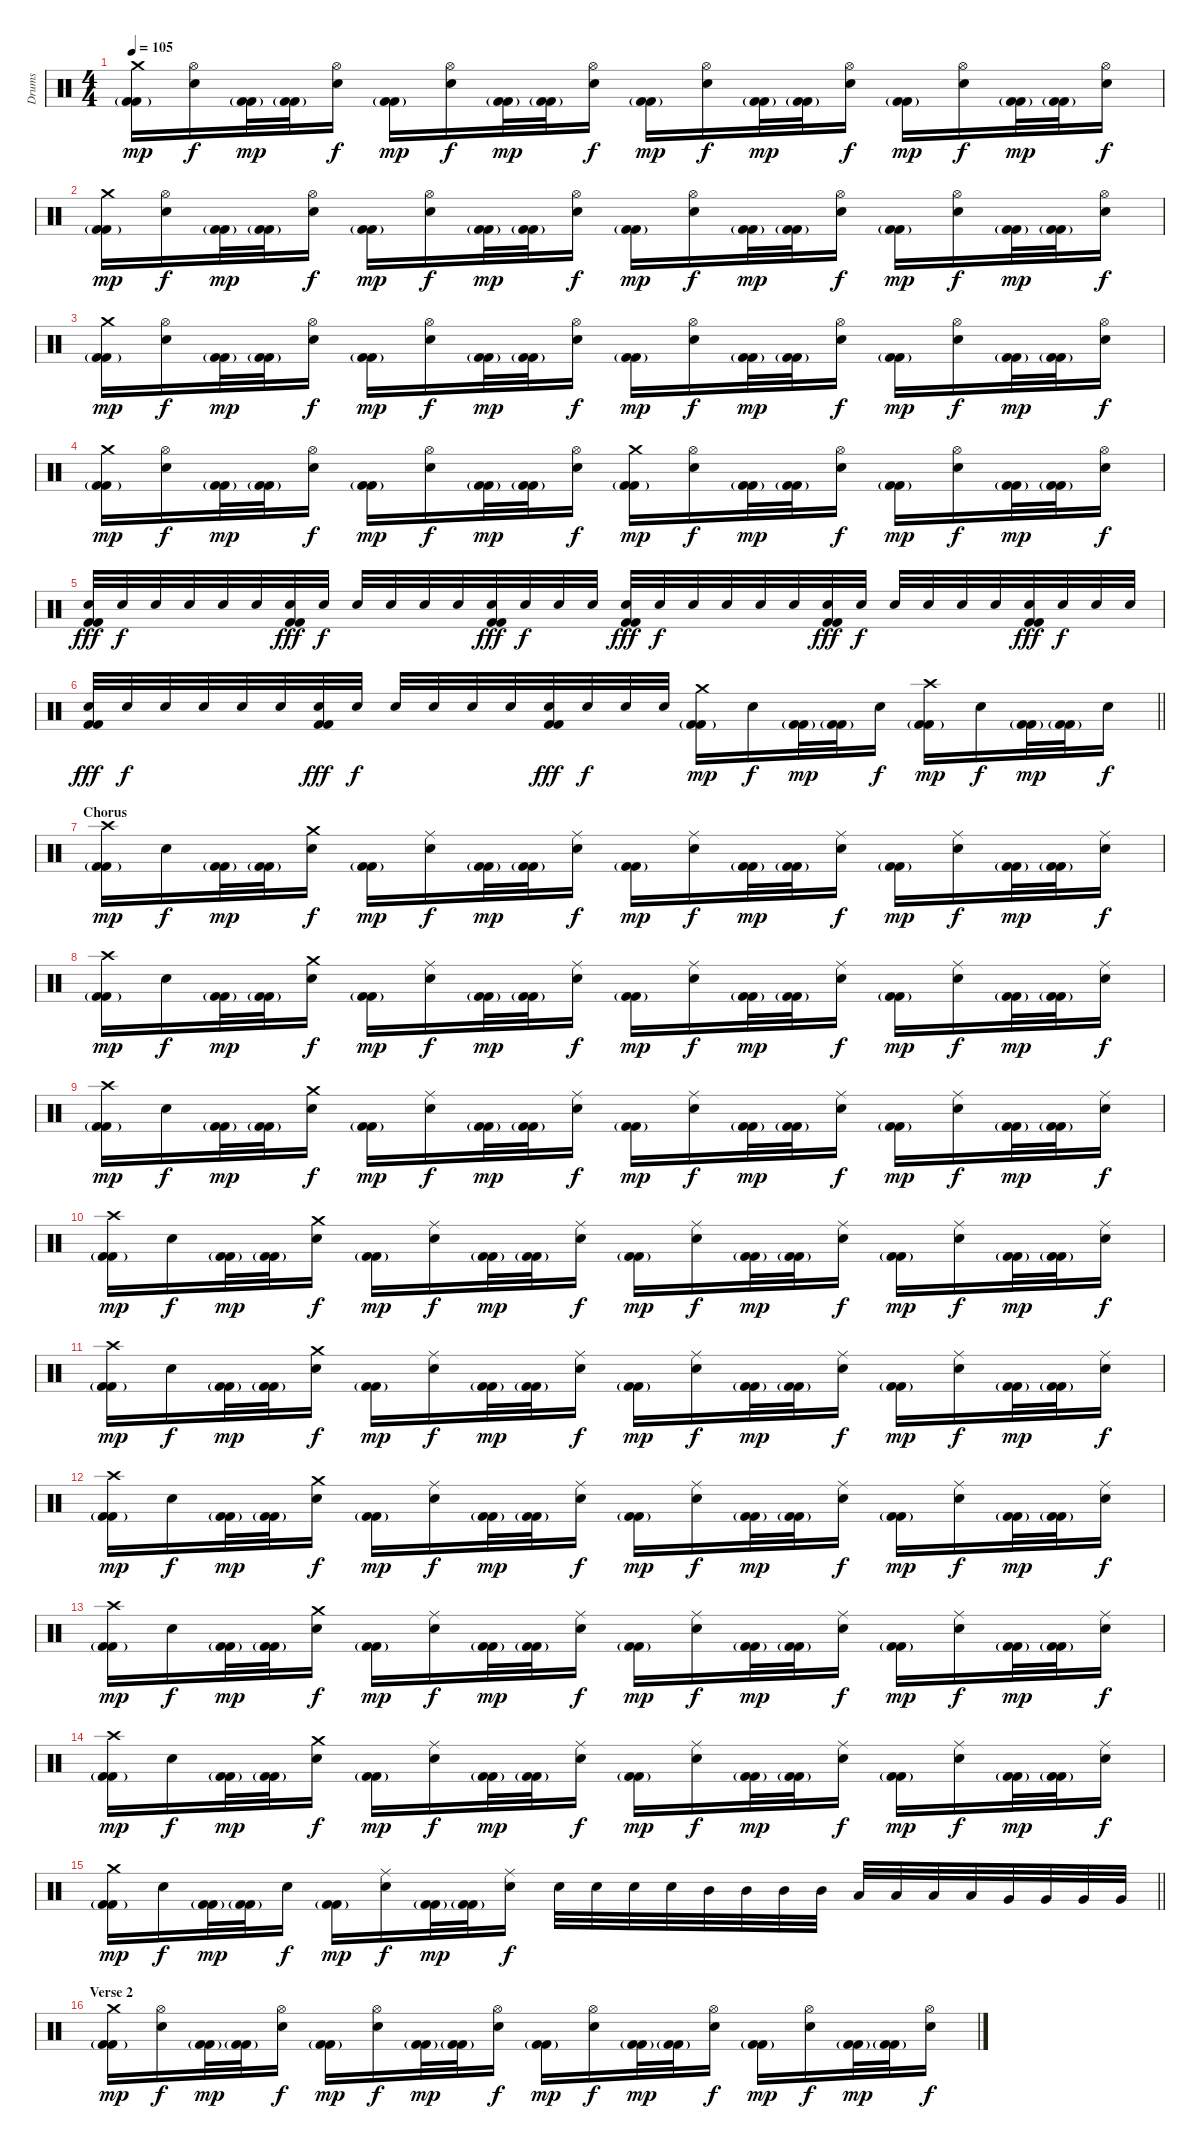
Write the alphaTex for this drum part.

\track ("Drums" "Drums") {instrument percussion}
\staff {score}
\articulation defaults
\ts (4 4)
\tempo 105
\clef neutral
\ks c
("Crash medium (hit)" "Kick (hit) 2"{g} "Kick (hit) 2").16{dy mp} ("Hi-Hat (open)" "Electric Snare (hit)").16{dy f} ("Kick (hit) 2"{g} "Kick (hit) 2").32{dy mp} ("Kick (hit) 2"{g} "Kick (hit) 2").32 ("Hi-Hat (open)" "Electric Snare (hit)").16{dy f} ("Kick (hit) 2"{g} "Kick (hit) 2").16{dy mp} ("Hi-Hat (open)" "Electric Snare (hit)").16{dy f} ("Kick (hit) 2"{g} "Kick (hit) 2").32{dy mp} ("Kick (hit) 2"{g} "Kick (hit) 2").32 ("Hi-Hat (open)" "Electric Snare (hit)").16{dy f} ("Kick (hit) 2"{g} "Kick (hit) 2").16{dy mp} ("Hi-Hat (open)" "Electric Snare (hit)").16{dy f} ("Kick (hit) 2"{g} "Kick (hit) 2").32{dy mp} ("Kick (hit) 2"{g} "Kick (hit) 2").32 ("Hi-Hat (open)" "Electric Snare (hit)").16{dy f} ("Kick (hit) 2"{g} "Kick (hit) 2").16{dy mp} ("Hi-Hat (open)" "Electric Snare (hit)").16{dy f} ("Kick (hit) 2"{g} "Kick (hit) 2").32{dy mp} ("Kick (hit) 2"{g} "Kick (hit) 2").32 ("Hi-Hat (open)" "Electric Snare (hit)").16{dy f} |
("Crash medium (hit)" "Kick (hit) 2"{g} "Kick (hit) 2").16{dy mp} ("Hi-Hat (open)" "Electric Snare (hit)").16{dy f} ("Kick (hit) 2"{g} "Kick (hit) 2").32{dy mp} ("Kick (hit) 2"{g} "Kick (hit) 2").32 ("Hi-Hat (open)" "Electric Snare (hit)").16{dy f} ("Kick (hit) 2"{g} "Kick (hit) 2").16{dy mp} ("Hi-Hat (open)" "Electric Snare (hit)").16{dy f} ("Kick (hit) 2"{g} "Kick (hit) 2").32{dy mp} ("Kick (hit) 2"{g} "Kick (hit) 2").32 ("Hi-Hat (open)" "Electric Snare (hit)").16{dy f} ("Kick (hit) 2"{g} "Kick (hit) 2").16{dy mp} ("Hi-Hat (open)" "Electric Snare (hit)").16{dy f} ("Kick (hit) 2"{g} "Kick (hit) 2").32{dy mp} ("Kick (hit) 2"{g} "Kick (hit) 2").32 ("Hi-Hat (open)" "Electric Snare (hit)").16{dy f} ("Kick (hit) 2"{g} "Kick (hit) 2").16{dy mp} ("Hi-Hat (open)" "Electric Snare (hit)").16{dy f} ("Kick (hit) 2"{g} "Kick (hit) 2").32{dy mp} ("Kick (hit) 2"{g} "Kick (hit) 2").32 ("Hi-Hat (open)" "Electric Snare (hit)").16{dy f} |
("Crash medium (hit)" "Kick (hit) 2"{g} "Kick (hit) 2").16{dy mp} ("Hi-Hat (open)" "Electric Snare (hit)").16{dy f} ("Kick (hit) 2"{g} "Kick (hit) 2").32{dy mp} ("Kick (hit) 2"{g} "Kick (hit) 2").32 ("Hi-Hat (open)" "Electric Snare (hit)").16{dy f} ("Kick (hit) 2"{g} "Kick (hit) 2").16{dy mp} ("Hi-Hat (open)" "Electric Snare (hit)").16{dy f} ("Kick (hit) 2"{g} "Kick (hit) 2").32{dy mp} ("Kick (hit) 2"{g} "Kick (hit) 2").32 ("Hi-Hat (open)" "Electric Snare (hit)").16{dy f} ("Kick (hit) 2"{g} "Kick (hit) 2").16{dy mp} ("Hi-Hat (open)" "Electric Snare (hit)").16{dy f} ("Kick (hit) 2"{g} "Kick (hit) 2").32{dy mp} ("Kick (hit) 2"{g} "Kick (hit) 2").32 ("Hi-Hat (open)" "Electric Snare (hit)").16{dy f} ("Kick (hit) 2"{g} "Kick (hit) 2").16{dy mp} ("Hi-Hat (open)" "Electric Snare (hit)").16{dy f} ("Kick (hit) 2"{g} "Kick (hit) 2").32{dy mp} ("Kick (hit) 2"{g} "Kick (hit) 2").32 ("Hi-Hat (open)" "Electric Snare (hit)").16{dy f} |
("Crash medium (hit)" "Kick (hit) 2"{g} "Kick (hit) 2").16{dy mp} ("Hi-Hat (open)" "Electric Snare (hit)").16{dy f} ("Kick (hit) 2"{g} "Kick (hit) 2").32{dy mp} ("Kick (hit) 2"{g} "Kick (hit) 2").32 ("Hi-Hat (open)" "Electric Snare (hit)").16{dy f} ("Kick (hit) 2"{g} "Kick (hit) 2").16{dy mp} ("Hi-Hat (open)" "Electric Snare (hit)").16{dy f} ("Kick (hit) 2"{g} "Kick (hit) 2").32{dy mp} ("Kick (hit) 2"{g} "Kick (hit) 2").32 ("Hi-Hat (open)" "Electric Snare (hit)").16{dy f} ("Crash medium (hit)" "Kick (hit) 2"{g} "Kick (hit) 2").16{dy mp} ("Hi-Hat (open)" "Electric Snare (hit)").16{dy f} ("Kick (hit) 2"{g} "Kick (hit) 2").32{dy mp} ("Kick (hit) 2"{g} "Kick (hit) 2").32 ("Hi-Hat (open)" "Electric Snare (hit)").16{dy f} ("Kick (hit) 2"{g} "Kick (hit) 2").16{dy mp} ("Hi-Hat (open)" "Electric Snare (hit)").16{dy f} ("Kick (hit) 2"{g} "Kick (hit) 2").32{dy mp} ("Kick (hit) 2"{g} "Kick (hit) 2").32 ("Hi-Hat (open)" "Electric Snare (hit)").16{dy f} |
("Electric Snare (hit)" "Kick (hit) 2" "Kick (hit) 2").32{dy fff} "Electric Snare (hit)".32{dy f} "Electric Snare (hit)".32 "Electric Snare (hit)".32 "Electric Snare (hit)".32 "Electric Snare (hit)".32 ("Electric Snare (hit)" "Kick (hit) 2" "Kick (hit) 2").32{dy fff} "Electric Snare (hit)".32{dy f} "Electric Snare (hit)".32 "Electric Snare (hit)".32 "Electric Snare (hit)".32 "Electric Snare (hit)".32 ("Electric Snare (hit)" "Kick (hit) 2" "Kick (hit) 2").32{dy fff} "Electric Snare (hit)".32{dy f} "Electric Snare (hit)".32 "Electric Snare (hit)".32 ("Electric Snare (hit)" "Kick (hit) 2" "Kick (hit) 2").32{dy fff} "Electric Snare (hit)".32{dy f} "Electric Snare (hit)".32 "Electric Snare (hit)".32 "Electric Snare (hit)".32 "Electric Snare (hit)".32 ("Electric Snare (hit)" "Kick (hit) 2" "Kick (hit) 2").32{dy fff} "Electric Snare (hit)".32{dy f} "Electric Snare (hit)".32 "Electric Snare (hit)".32 "Electric Snare (hit)".32 "Electric Snare (hit)".32 ("Electric Snare (hit)" "Kick (hit) 2" "Kick (hit) 2").32{dy fff} "Electric Snare (hit)".32{dy f} "Electric Snare (hit)".32 "Electric Snare (hit)".32 |
\barLineRight lightlight
("Electric Snare (hit)" "Kick (hit) 2" "Kick (hit) 2").32{dy fff} "Electric Snare (hit)".32{dy f} "Electric Snare (hit)".32 "Electric Snare (hit)".32 "Electric Snare (hit)".32 "Electric Snare (hit)".32 ("Electric Snare (hit)" "Kick (hit) 2" "Kick (hit) 2").32{dy fff} "Electric Snare (hit)".32{dy f} "Electric Snare (hit)".32 "Electric Snare (hit)".32 "Electric Snare (hit)".32 "Electric Snare (hit)".32 ("Electric Snare (hit)" "Kick (hit) 2" "Kick (hit) 2").32{dy fff} "Electric Snare (hit)".32{dy f} "Electric Snare (hit)".32 "Electric Snare (hit)".32 ("Crash medium (hit)" "Kick (hit) 2"{g} "Kick (hit) 2").16{dy mp} "Electric Snare (hit)".16{dy f} ("Kick (hit) 2"{g} "Kick (hit) 2").32{dy mp} ("Kick (hit) 2"{g} "Kick (hit) 2").32 "Electric Snare (hit)".16{dy f} ("Crash high (hit)" "Kick (hit) 2"{g} "Kick (hit) 2").16{dy mp} "Electric Snare (hit)".16{dy f} ("Kick (hit) 2"{g} "Kick (hit) 2").32{dy mp} ("Kick (hit) 2"{g} "Kick (hit) 2").32 "Electric Snare (hit)".16{dy f} |
\section ("" "Chorus")
("Crash high (hit)" "Kick (hit) 2"{g} "Kick (hit) 2").16{dy mp} "Electric Snare (hit)".16{dy f} ("Kick (hit) 2"{g} "Kick (hit) 2").32{dy mp} ("Kick (hit) 2"{g} "Kick (hit) 2").32 ("Crash medium (hit)" "Electric Snare (hit)").16{dy f} ("Kick (hit) 2"{g} "Kick (hit) 2").16{dy mp} ("Ride (middle)" "Electric Snare (hit)").16{dy f} ("Kick (hit) 2"{g} "Kick (hit) 2").32{dy mp} ("Kick (hit) 2"{g} "Kick (hit) 2").32 ("Ride (middle)" "Electric Snare (hit)").16{dy f} ("Kick (hit) 2"{g} "Kick (hit) 2").16{dy mp} ("Ride (middle)" "Electric Snare (hit)").16{dy f} ("Kick (hit) 2"{g} "Kick (hit) 2").32{dy mp} ("Kick (hit) 2"{g} "Kick (hit) 2").32 ("Ride (middle)" "Electric Snare (hit)").16{dy f} ("Kick (hit) 2"{g} "Kick (hit) 2").16{dy mp} ("Ride (middle)" "Electric Snare (hit)").16{dy f} ("Kick (hit) 2"{g} "Kick (hit) 2").32{dy mp} ("Kick (hit) 2"{g} "Kick (hit) 2").32 ("Ride (middle)" "Electric Snare (hit)").16{dy f} |
("Crash high (hit)" "Kick (hit) 2"{g} "Kick (hit) 2").16{dy mp} "Electric Snare (hit)".16{dy f} ("Kick (hit) 2"{g} "Kick (hit) 2").32{dy mp} ("Kick (hit) 2"{g} "Kick (hit) 2").32 ("Crash medium (hit)" "Electric Snare (hit)").16{dy f} ("Kick (hit) 2"{g} "Kick (hit) 2").16{dy mp} ("Ride (middle)" "Electric Snare (hit)").16{dy f} ("Kick (hit) 2"{g} "Kick (hit) 2").32{dy mp} ("Kick (hit) 2"{g} "Kick (hit) 2").32 ("Ride (middle)" "Electric Snare (hit)").16{dy f} ("Kick (hit) 2"{g} "Kick (hit) 2").16{dy mp} ("Ride (middle)" "Electric Snare (hit)").16{dy f} ("Kick (hit) 2"{g} "Kick (hit) 2").32{dy mp} ("Kick (hit) 2"{g} "Kick (hit) 2").32 ("Ride (middle)" "Electric Snare (hit)").16{dy f} ("Kick (hit) 2"{g} "Kick (hit) 2").16{dy mp} ("Ride (middle)" "Electric Snare (hit)").16{dy f} ("Kick (hit) 2"{g} "Kick (hit) 2").32{dy mp} ("Kick (hit) 2"{g} "Kick (hit) 2").32 ("Ride (middle)" "Electric Snare (hit)").16{dy f} |
("Crash high (hit)" "Kick (hit) 2"{g} "Kick (hit) 2").16{dy mp} "Electric Snare (hit)".16{dy f} ("Kick (hit) 2"{g} "Kick (hit) 2").32{dy mp} ("Kick (hit) 2"{g} "Kick (hit) 2").32 ("Crash medium (hit)" "Electric Snare (hit)").16{dy f} ("Kick (hit) 2"{g} "Kick (hit) 2").16{dy mp} ("Ride (middle)" "Electric Snare (hit)").16{dy f} ("Kick (hit) 2"{g} "Kick (hit) 2").32{dy mp} ("Kick (hit) 2"{g} "Kick (hit) 2").32 ("Ride (middle)" "Electric Snare (hit)").16{dy f} ("Kick (hit) 2"{g} "Kick (hit) 2").16{dy mp} ("Ride (middle)" "Electric Snare (hit)").16{dy f} ("Kick (hit) 2"{g} "Kick (hit) 2").32{dy mp} ("Kick (hit) 2"{g} "Kick (hit) 2").32 ("Ride (middle)" "Electric Snare (hit)").16{dy f} ("Kick (hit) 2"{g} "Kick (hit) 2").16{dy mp} ("Ride (middle)" "Electric Snare (hit)").16{dy f} ("Kick (hit) 2"{g} "Kick (hit) 2").32{dy mp} ("Kick (hit) 2"{g} "Kick (hit) 2").32 ("Ride (middle)" "Electric Snare (hit)").16{dy f} |
("Crash high (hit)" "Kick (hit) 2"{g} "Kick (hit) 2").16{dy mp} "Electric Snare (hit)".16{dy f} ("Kick (hit) 2"{g} "Kick (hit) 2").32{dy mp} ("Kick (hit) 2"{g} "Kick (hit) 2").32 ("Crash medium (hit)" "Electric Snare (hit)").16{dy f} ("Kick (hit) 2"{g} "Kick (hit) 2").16{dy mp} ("Ride (middle)" "Electric Snare (hit)").16{dy f} ("Kick (hit) 2"{g} "Kick (hit) 2").32{dy mp} ("Kick (hit) 2"{g} "Kick (hit) 2").32 ("Ride (middle)" "Electric Snare (hit)").16{dy f} ("Kick (hit) 2"{g} "Kick (hit) 2").16{dy mp} ("Ride (middle)" "Electric Snare (hit)").16{dy f} ("Kick (hit) 2"{g} "Kick (hit) 2").32{dy mp} ("Kick (hit) 2"{g} "Kick (hit) 2").32 ("Ride (middle)" "Electric Snare (hit)").16{dy f} ("Kick (hit) 2"{g} "Kick (hit) 2").16{dy mp} ("Ride (middle)" "Electric Snare (hit)").16{dy f} ("Kick (hit) 2"{g} "Kick (hit) 2").32{dy mp} ("Kick (hit) 2"{g} "Kick (hit) 2").32 ("Ride (middle)" "Electric Snare (hit)").16{dy f} |
("Crash high (hit)" "Kick (hit) 2"{g} "Kick (hit) 2").16{dy mp} "Electric Snare (hit)".16{dy f} ("Kick (hit) 2"{g} "Kick (hit) 2").32{dy mp} ("Kick (hit) 2"{g} "Kick (hit) 2").32 ("Crash medium (hit)" "Electric Snare (hit)").16{dy f} ("Kick (hit) 2"{g} "Kick (hit) 2").16{dy mp} ("Ride (middle)" "Electric Snare (hit)").16{dy f} ("Kick (hit) 2"{g} "Kick (hit) 2").32{dy mp} ("Kick (hit) 2"{g} "Kick (hit) 2").32 ("Ride (middle)" "Electric Snare (hit)").16{dy f} ("Kick (hit) 2"{g} "Kick (hit) 2").16{dy mp} ("Ride (middle)" "Electric Snare (hit)").16{dy f} ("Kick (hit) 2"{g} "Kick (hit) 2").32{dy mp} ("Kick (hit) 2"{g} "Kick (hit) 2").32 ("Ride (middle)" "Electric Snare (hit)").16{dy f} ("Kick (hit) 2"{g} "Kick (hit) 2").16{dy mp} ("Ride (middle)" "Electric Snare (hit)").16{dy f} ("Kick (hit) 2"{g} "Kick (hit) 2").32{dy mp} ("Kick (hit) 2"{g} "Kick (hit) 2").32 ("Ride (middle)" "Electric Snare (hit)").16{dy f} |
("Crash high (hit)" "Kick (hit) 2"{g} "Kick (hit) 2").16{dy mp} "Electric Snare (hit)".16{dy f} ("Kick (hit) 2"{g} "Kick (hit) 2").32{dy mp} ("Kick (hit) 2"{g} "Kick (hit) 2").32 ("Crash medium (hit)" "Electric Snare (hit)").16{dy f} ("Kick (hit) 2"{g} "Kick (hit) 2").16{dy mp} ("Ride (middle)" "Electric Snare (hit)").16{dy f} ("Kick (hit) 2"{g} "Kick (hit) 2").32{dy mp} ("Kick (hit) 2"{g} "Kick (hit) 2").32 ("Ride (middle)" "Electric Snare (hit)").16{dy f} ("Kick (hit) 2"{g} "Kick (hit) 2").16{dy mp} ("Ride (middle)" "Electric Snare (hit)").16{dy f} ("Kick (hit) 2"{g} "Kick (hit) 2").32{dy mp} ("Kick (hit) 2"{g} "Kick (hit) 2").32 ("Ride (middle)" "Electric Snare (hit)").16{dy f} ("Kick (hit) 2"{g} "Kick (hit) 2").16{dy mp} ("Ride (middle)" "Electric Snare (hit)").16{dy f} ("Kick (hit) 2"{g} "Kick (hit) 2").32{dy mp} ("Kick (hit) 2"{g} "Kick (hit) 2").32 ("Ride (middle)" "Electric Snare (hit)").16{dy f} |
("Crash high (hit)" "Kick (hit) 2"{g} "Kick (hit) 2").16{dy mp} "Electric Snare (hit)".16{dy f} ("Kick (hit) 2"{g} "Kick (hit) 2").32{dy mp} ("Kick (hit) 2"{g} "Kick (hit) 2").32 ("Crash medium (hit)" "Electric Snare (hit)").16{dy f} ("Kick (hit) 2"{g} "Kick (hit) 2").16{dy mp} ("Ride (middle)" "Electric Snare (hit)").16{dy f} ("Kick (hit) 2"{g} "Kick (hit) 2").32{dy mp} ("Kick (hit) 2"{g} "Kick (hit) 2").32 ("Ride (middle)" "Electric Snare (hit)").16{dy f} ("Kick (hit) 2"{g} "Kick (hit) 2").16{dy mp} ("Ride (middle)" "Electric Snare (hit)").16{dy f} ("Kick (hit) 2"{g} "Kick (hit) 2").32{dy mp} ("Kick (hit) 2"{g} "Kick (hit) 2").32 ("Ride (middle)" "Electric Snare (hit)").16{dy f} ("Kick (hit) 2"{g} "Kick (hit) 2").16{dy mp} ("Ride (middle)" "Electric Snare (hit)").16{dy f} ("Kick (hit) 2"{g} "Kick (hit) 2").32{dy mp} ("Kick (hit) 2"{g} "Kick (hit) 2").32 ("Ride (middle)" "Electric Snare (hit)").16{dy f} |
("Crash high (hit)" "Kick (hit) 2"{g} "Kick (hit) 2").16{dy mp} "Electric Snare (hit)".16{dy f} ("Kick (hit) 2"{g} "Kick (hit) 2").32{dy mp} ("Kick (hit) 2"{g} "Kick (hit) 2").32 ("Crash medium (hit)" "Electric Snare (hit)").16{dy f} ("Kick (hit) 2"{g} "Kick (hit) 2").16{dy mp} ("Ride (middle)" "Electric Snare (hit)").16{dy f} ("Kick (hit) 2"{g} "Kick (hit) 2").32{dy mp} ("Kick (hit) 2"{g} "Kick (hit) 2").32 ("Ride (middle)" "Electric Snare (hit)").16{dy f} ("Kick (hit) 2"{g} "Kick (hit) 2").16{dy mp} ("Ride (middle)" "Electric Snare (hit)").16{dy f} ("Kick (hit) 2"{g} "Kick (hit) 2").32{dy mp} ("Kick (hit) 2"{g} "Kick (hit) 2").32 ("Ride (middle)" "Electric Snare (hit)").16{dy f} ("Kick (hit) 2"{g} "Kick (hit) 2").16{dy mp} ("Ride (middle)" "Electric Snare (hit)").16{dy f} ("Kick (hit) 2"{g} "Kick (hit) 2").32{dy mp} ("Kick (hit) 2"{g} "Kick (hit) 2").32 ("Ride (middle)" "Electric Snare (hit)").16{dy f} |
\barLineRight lightlight
("Crash medium (hit)" "Kick (hit) 2"{g} "Kick (hit) 2").16{dy mp} "Electric Snare (hit)".16{dy f} ("Kick (hit) 2"{g} "Kick (hit) 2").32{dy mp} ("Kick (hit) 2"{g} "Kick (hit) 2").32 "Electric Snare (hit)".16{dy f} ("Kick (hit) 2"{g} "Kick (hit) 2").16{dy mp} ("Ride (middle)" "Electric Snare (hit)").16{dy f} ("Kick (hit) 2"{g} "Kick (hit) 2").32{dy mp} ("Kick (hit) 2"{g} "Kick (hit) 2").32 ("Ride (middle)" "Electric Snare (hit)").16{dy f} "Electric Snare (hit)".32 "Electric Snare (hit)".32 "Electric Snare (hit)".32 "Electric Snare (hit)".32 "Mid Tom (hit)".32 "Mid Tom (hit)".32 "Mid Tom (hit)".32 "Mid Tom (hit)".32 "Low Tom (hit)".32 "Low Tom (hit)".32 "Low Tom (hit)".32 "Low Tom (hit)".32 "Very Low Tom (hit)".32 "Very Low Tom (hit)".32 "Very Low Tom (hit)".32 "Very Low Tom (hit)".32 |
\section ("" "Verse 2")
("Crash medium (hit)" "Kick (hit) 2"{g} "Kick (hit) 2").16{dy mp} ("Hi-Hat (open)" "Electric Snare (hit)").16{dy f} ("Kick (hit) 2"{g} "Kick (hit) 2").32{dy mp} ("Kick (hit) 2"{g} "Kick (hit) 2").32 ("Hi-Hat (open)" "Electric Snare (hit)").16{dy f} ("Kick (hit) 2"{g} "Kick (hit) 2").16{dy mp} ("Hi-Hat (open)" "Electric Snare (hit)").16{dy f} ("Kick (hit) 2"{g} "Kick (hit) 2").32{dy mp} ("Kick (hit) 2"{g} "Kick (hit) 2").32 ("Hi-Hat (open)" "Electric Snare (hit)").16{dy f} ("Kick (hit) 2"{g} "Kick (hit) 2").16{dy mp} ("Hi-Hat (open)" "Electric Snare (hit)").16{dy f} ("Kick (hit) 2"{g} "Kick (hit) 2").32{dy mp} ("Kick (hit) 2"{g} "Kick (hit) 2").32 ("Hi-Hat (open)" "Electric Snare (hit)").16{dy f} ("Kick (hit) 2"{g} "Kick (hit) 2").16{dy mp} ("Hi-Hat (open)" "Electric Snare (hit)").16{dy f} ("Kick (hit) 2"{g} "Kick (hit) 2").32{dy mp} ("Kick (hit) 2"{g} "Kick (hit) 2").32 ("Hi-Hat (open)" "Electric Snare (hit)").16{dy f}
